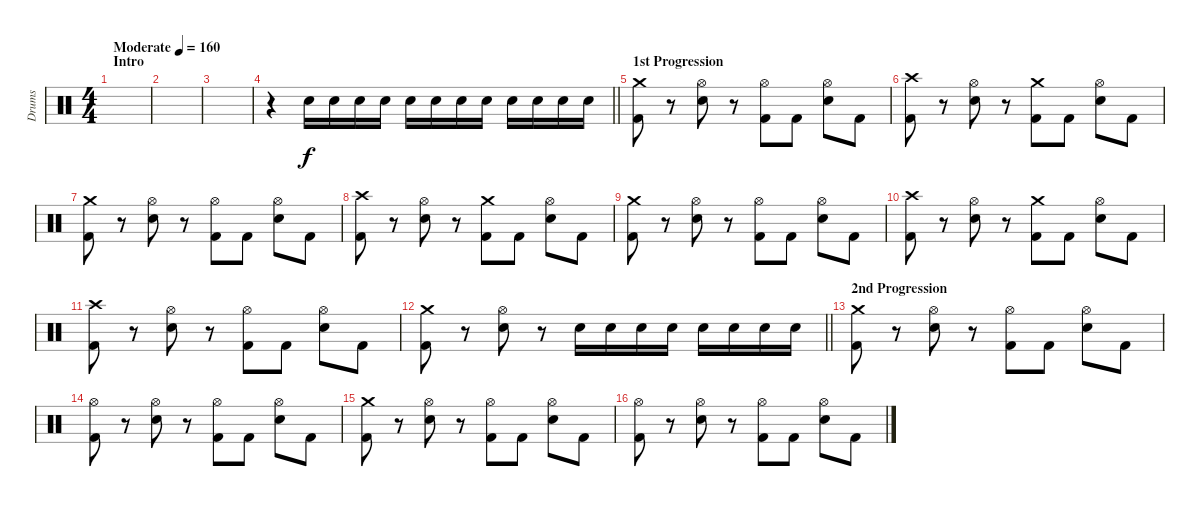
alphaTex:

\track ("Drums" "Drums") {instrument percussion}
\staff {score}
\articulation defaults
\ts (4 4)
\section ("" "Intro")
\tempo (160 "Moderate")
\clef neutral
\ks c
|
|
|
\barLineRight lightlight
r.4 "Snare (hit) 2".16 "Snare (hit) 2".16 "Snare (hit) 2".16 "Snare (hit) 2".16 "Snare (hit) 2".16 "Snare (hit) 2".16 "Snare (hit) 2".16 "Snare (hit) 2".16 "Snare (hit) 2".16 "Snare (hit) 2".16 "Snare (hit) 2".16 "Snare (hit) 2".16 |
\section ("" "1st Progression")
("Crash medium (hit)" "Kick (hit) 2").8 r.8 ("Hi-Hat (open)" "Snare (hit) 2").8 r.8 ("Hi-Hat (open)" "Kick (hit) 2").8 "Kick (hit) 2".8 ("Hi-Hat (open)" "Snare (hit) 2").8 "Kick (hit) 2".8 |
("Crash high (hit)" "Kick (hit) 2").8 r.8 ("Hi-Hat (open)" "Snare (hit) 2").8 r.8 ("Crash medium (hit)" "Kick (hit) 2").8 "Kick (hit) 2".8 ("Hi-Hat (open)" "Snare (hit) 2").8 "Kick (hit) 2".8 |
("Crash medium (hit)" "Kick (hit) 2").8 r.8 ("Hi-Hat (open)" "Snare (hit) 2").8 r.8 ("Hi-Hat (open)" "Kick (hit) 2").8 "Kick (hit) 2".8 ("Hi-Hat (open)" "Snare (hit) 2").8 "Kick (hit) 2".8 |
("Crash high (hit)" "Kick (hit) 2").8 r.8 ("Hi-Hat (open)" "Snare (hit) 2").8 r.8 ("Crash medium (hit)" "Kick (hit) 2").8 "Kick (hit) 2".8 ("Hi-Hat (open)" "Snare (hit) 2").8 "Kick (hit) 2".8 |
("Crash medium (hit)" "Kick (hit) 2").8 r.8 ("Hi-Hat (open)" "Snare (hit) 2").8 r.8 ("Hi-Hat (open)" "Kick (hit) 2").8 "Kick (hit) 2".8 ("Hi-Hat (open)" "Snare (hit) 2").8 "Kick (hit) 2".8 |
("Crash high (hit)" "Kick (hit) 2").8 r.8 ("Hi-Hat (open)" "Snare (hit) 2").8 r.8 ("Crash medium (hit)" "Kick (hit) 2").8 "Kick (hit) 2".8 ("Hi-Hat (open)" "Snare (hit) 2").8 "Kick (hit) 2".8 |
("Crash high (hit)" "Kick (hit) 2").8 r.8 ("Hi-Hat (open)" "Snare (hit) 2").8 r.8 ("Hi-Hat (open)" "Kick (hit) 2").8 "Kick (hit) 2".8 ("Hi-Hat (open)" "Snare (hit) 2").8 "Kick (hit) 2".8 |
\barLineRight lightlight
("Crash medium (hit)" "Kick (hit) 2").8 r.8 ("Hi-Hat (open)" "Snare (hit) 2").8 r.8 "Snare (hit) 2".16 "Snare (hit) 2".16 "Snare (hit) 2".16 "Snare (hit) 2".16 "Snare (hit) 2".16 "Snare (hit) 2".16 "Snare (hit) 2".16 "Snare (hit) 2".16 |
\section ("" "2nd Progression")
("Crash medium (hit)" "Kick (hit) 2").8 r.8 ("Hi-Hat (open)" "Snare (hit) 2").8 r.8 ("Hi-Hat (open)" "Kick (hit) 2").8 "Kick (hit) 2".8 ("Hi-Hat (open)" "Snare (hit) 2").8 "Kick (hit) 2".8 |
("Hi-Hat (open)" "Kick (hit) 2").8 r.8 ("Hi-Hat (open)" "Snare (hit) 2").8 r.8 ("Hi-Hat (open)" "Kick (hit) 2").8 "Kick (hit) 2".8 ("Hi-Hat (open)" "Snare (hit) 2").8 "Kick (hit) 2".8 |
("Crash medium (hit)" "Kick (hit) 2").8 r.8 ("Hi-Hat (open)" "Snare (hit) 2").8 r.8 ("Hi-Hat (open)" "Kick (hit) 2").8 "Kick (hit) 2".8 ("Hi-Hat (open)" "Snare (hit) 2").8 "Kick (hit) 2".8 |
("Hi-Hat (open)" "Kick (hit) 2").8 r.8 ("Hi-Hat (open)" "Snare (hit) 2").8 r.8 ("Hi-Hat (open)" "Kick (hit) 2").8 "Kick (hit) 2".8 ("Hi-Hat (open)" "Snare (hit) 2").8 "Kick (hit) 2".8
